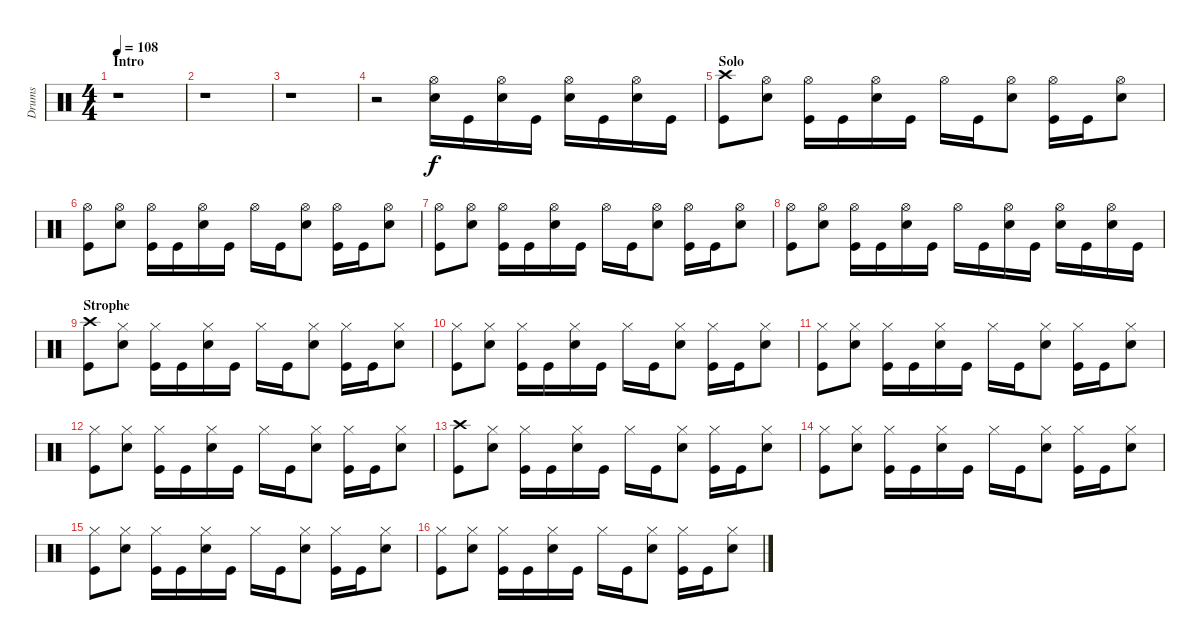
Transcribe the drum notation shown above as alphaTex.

\track ("Drums" "Drums") {instrument percussion}
\staff {score}
\articulation defaults
\ts (4 4)
\section ("" "Intro")
\tempo 108
\clef neutral
\ks c
r.1{dy f} |
r.1 |
r.1 |
r.2 ("Hi-Hat (open)" "Snare (hit) 2").16 "Kick (hit)".16 ("Hi-Hat (open)" "Snare (hit) 2").16 "Kick (hit)".16 ("Hi-Hat (open)" "Snare (hit) 2").16 "Kick (hit)".16 ("Hi-Hat (open)" "Snare (hit) 2").16 "Kick (hit)".16 |
\section ("" "Solo")
("Crash high (hit)" "Kick (hit)").8 ("Hi-Hat (open)" "Snare (hit) 2").8 ("Hi-Hat (open)" "Kick (hit)").16 "Kick (hit)".16 ("Hi-Hat (open)" "Snare (hit) 2").16 "Kick (hit)".16 "Hi-Hat (open)".16 "Kick (hit)".16 ("Hi-Hat (open)" "Snare (hit) 2").8 ("Hi-Hat (open)" "Kick (hit)").16 "Kick (hit)".16 ("Hi-Hat (open)" "Snare (hit) 2").8 |
("Hi-Hat (open)" "Kick (hit)").8 ("Hi-Hat (open)" "Snare (hit) 2").8 ("Hi-Hat (open)" "Kick (hit)").16 "Kick (hit)".16 ("Hi-Hat (open)" "Snare (hit) 2").16 "Kick (hit)".16 "Hi-Hat (open)".16 "Kick (hit)".16 ("Hi-Hat (open)" "Snare (hit) 2").8 ("Hi-Hat (open)" "Kick (hit)").16 "Kick (hit)".16 ("Hi-Hat (open)" "Snare (hit) 2").8 |
("Hi-Hat (open)" "Kick (hit)").8 ("Hi-Hat (open)" "Snare (hit) 2").8 ("Hi-Hat (open)" "Kick (hit)").16 "Kick (hit)".16 ("Hi-Hat (open)" "Snare (hit) 2").16 "Kick (hit)".16 "Hi-Hat (open)".16 "Kick (hit)".16 ("Hi-Hat (open)" "Snare (hit) 2").8 ("Hi-Hat (open)" "Kick (hit)").16 "Kick (hit)".16 ("Hi-Hat (open)" "Snare (hit) 2").8 |
("Hi-Hat (open)" "Kick (hit)").8 ("Hi-Hat (open)" "Snare (hit) 2").8 ("Hi-Hat (open)" "Kick (hit)").16 "Kick (hit)".16 ("Hi-Hat (open)" "Snare (hit) 2").16 "Kick (hit)".16 "Hi-Hat (open)".16 "Kick (hit)".16 ("Hi-Hat (open)" "Snare (hit) 2").16 "Kick (hit)".16 ("Hi-Hat (open)" "Snare (hit) 2").16 "Kick (hit)".16 ("Hi-Hat (open)" "Snare (hit) 2").16 "Kick (hit)".16 |
\section ("" "Strophe")
("Crash high (hit)" "Kick (hit)").8 ("Hi-Hat (closed)" "Snare (hit) 2").8 ("Hi-Hat (closed)" "Kick (hit)").16 "Kick (hit)".16 ("Hi-Hat (closed)" "Snare (hit) 2").16 "Kick (hit)".16 "Hi-Hat (closed)".16 "Kick (hit)".16 ("Hi-Hat (closed)" "Snare (hit) 2").8 ("Hi-Hat (closed)" "Kick (hit)").16 "Kick (hit)".16 ("Hi-Hat (closed)" "Snare (hit) 2").8 |
("Hi-Hat (closed)" "Kick (hit)").8 ("Hi-Hat (closed)" "Snare (hit) 2").8 ("Hi-Hat (closed)" "Kick (hit)").16 "Kick (hit)".16 ("Hi-Hat (closed)" "Snare (hit) 2").16 "Kick (hit)".16 "Hi-Hat (closed)".16 "Kick (hit)".16 ("Hi-Hat (closed)" "Snare (hit) 2").8 ("Hi-Hat (closed)" "Kick (hit)").16 "Kick (hit)".16 ("Hi-Hat (closed)" "Snare (hit) 2").8 |
("Hi-Hat (closed)" "Kick (hit)").8 ("Hi-Hat (closed)" "Snare (hit) 2").8 ("Hi-Hat (closed)" "Kick (hit)").16 "Kick (hit)".16 ("Hi-Hat (closed)" "Snare (hit) 2").16 "Kick (hit)".16 "Hi-Hat (closed)".16 "Kick (hit)".16 ("Hi-Hat (closed)" "Snare (hit) 2").8 ("Hi-Hat (closed)" "Kick (hit)").16 "Kick (hit)".16 ("Hi-Hat (closed)" "Snare (hit) 2").8 |
("Hi-Hat (closed)" "Kick (hit)").8 ("Hi-Hat (closed)" "Snare (hit) 2").8 ("Hi-Hat (closed)" "Kick (hit)").16 "Kick (hit)".16 ("Hi-Hat (closed)" "Snare (hit) 2").16 "Kick (hit)".16 "Hi-Hat (closed)".16 "Kick (hit)".16 ("Hi-Hat (closed)" "Snare (hit) 2").8 ("Hi-Hat (closed)" "Kick (hit)").16 "Kick (hit)".16 ("Hi-Hat (closed)" "Snare (hit) 2").8 |
("Crash high (hit)" "Kick (hit)").8 ("Hi-Hat (closed)" "Snare (hit) 2").8 ("Hi-Hat (closed)" "Kick (hit)").16 "Kick (hit)".16 ("Hi-Hat (closed)" "Snare (hit) 2").16 "Kick (hit)".16 "Hi-Hat (closed)".16 "Kick (hit)".16 ("Hi-Hat (closed)" "Snare (hit) 2").8 ("Hi-Hat (closed)" "Kick (hit)").16 "Kick (hit)".16 ("Hi-Hat (closed)" "Snare (hit) 2").8 |
("Hi-Hat (closed)" "Kick (hit)").8 ("Hi-Hat (closed)" "Snare (hit) 2").8 ("Hi-Hat (closed)" "Kick (hit)").16 "Kick (hit)".16 ("Hi-Hat (closed)" "Snare (hit) 2").16 "Kick (hit)".16 "Hi-Hat (closed)".16 "Kick (hit)".16 ("Hi-Hat (closed)" "Snare (hit) 2").8 ("Hi-Hat (closed)" "Kick (hit)").16 "Kick (hit)".16 ("Hi-Hat (closed)" "Snare (hit) 2").8 |
("Hi-Hat (closed)" "Kick (hit)").8 ("Hi-Hat (closed)" "Snare (hit) 2").8 ("Hi-Hat (closed)" "Kick (hit)").16 "Kick (hit)".16 ("Hi-Hat (closed)" "Snare (hit) 2").16 "Kick (hit)".16 "Hi-Hat (closed)".16 "Kick (hit)".16 ("Hi-Hat (closed)" "Snare (hit) 2").8 ("Hi-Hat (closed)" "Kick (hit)").16 "Kick (hit)".16 ("Hi-Hat (closed)" "Snare (hit) 2").8 |
("Hi-Hat (closed)" "Kick (hit)").8 ("Hi-Hat (closed)" "Snare (hit) 2").8 ("Hi-Hat (closed)" "Kick (hit)").16 "Kick (hit)".16 ("Hi-Hat (closed)" "Snare (hit) 2").16 "Kick (hit)".16 "Hi-Hat (closed)".16 "Kick (hit)".16 ("Hi-Hat (closed)" "Snare (hit) 2").8 ("Hi-Hat (closed)" "Kick (hit)").16 "Kick (hit)".16 ("Hi-Hat (closed)" "Snare (hit) 2").8
